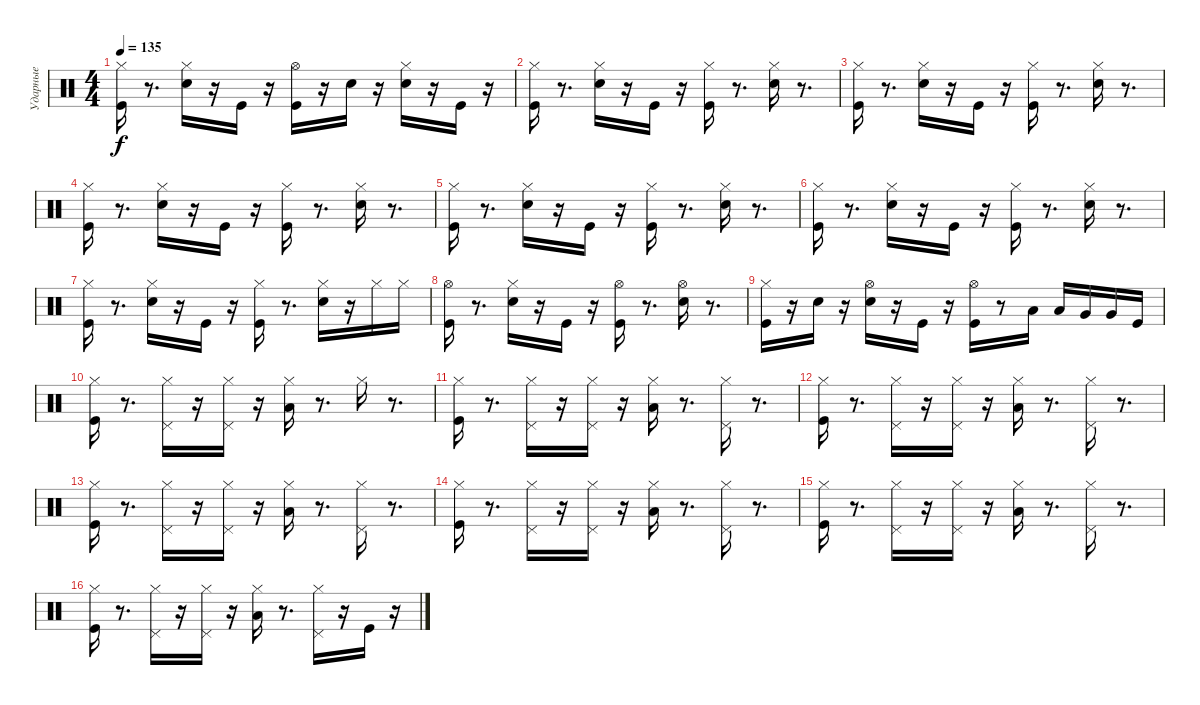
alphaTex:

\track ("Ударные" "Ударные") {instrument percussion}
\staff {score}
\articulation defaults
\ts (4 4)
\tempo 135
\clef neutral
\ks c
("Hi-Hat (closed)" "Kick (hit)").16{dy f} r.8{d} ("Hi-Hat (closed)" "Snare (hit) 2").16 r.16 "Kick (hit)".16 r.16 ("Kick (hit)" "Hi-Hat (open)").16 r.16 "Snare (hit) 2".16 r.16 ("Hi-Hat (closed)" "Snare (hit) 2").16 r.16 "Kick (hit)".16 r.16 |
("Hi-Hat (closed)" "Kick (hit)").16 r.8{d} ("Hi-Hat (closed)" "Snare (hit) 2").16 r.16 "Kick (hit)".16 r.16 ("Hi-Hat (closed)" "Kick (hit)").16 r.8{d} ("Hi-Hat (closed)" "Snare (hit) 2").16 r.8{d} |
("Hi-Hat (closed)" "Kick (hit)").16 r.8{d} ("Hi-Hat (closed)" "Snare (hit) 2").16 r.16 "Kick (hit)".16 r.16 ("Hi-Hat (closed)" "Kick (hit)").16 r.8{d} ("Hi-Hat (closed)" "Snare (hit) 2").16 r.8{d} |
("Hi-Hat (closed)" "Kick (hit)").16 r.8{d} ("Hi-Hat (closed)" "Snare (hit) 2").16 r.16 "Kick (hit)".16 r.16 ("Hi-Hat (closed)" "Kick (hit)").16 r.8{d} ("Hi-Hat (closed)" "Snare (hit) 2").16 r.8{d} |
("Hi-Hat (closed)" "Kick (hit)").16 r.8{d} ("Hi-Hat (closed)" "Snare (hit) 2").16 r.16 "Kick (hit)".16 r.16 ("Hi-Hat (closed)" "Kick (hit)").16 r.8{d} ("Hi-Hat (closed)" "Snare (hit) 2").16 r.8{d} |
("Hi-Hat (closed)" "Kick (hit)").16 r.8{d} ("Hi-Hat (closed)" "Snare (hit) 2").16 r.16 "Kick (hit)".16 r.16 ("Hi-Hat (closed)" "Kick (hit)").16 r.8{d} ("Hi-Hat (closed)" "Snare (hit) 2").16 r.8{d} |
("Hi-Hat (closed)" "Kick (hit)").16 r.8{d} ("Hi-Hat (closed)" "Snare (hit) 2").16 r.16 "Kick (hit)".16 r.16 ("Hi-Hat (closed)" "Kick (hit)").16 r.8{d} ("Hi-Hat (closed)" "Snare (hit) 2").16 r.16 "Hi-Hat (closed)".16 "Hi-Hat (closed)".16 |
("Kick (hit)" "Hi-Hat (open)").16 r.8{d} ("Hi-Hat (closed)" "Snare (hit) 2").16 r.16 "Kick (hit)".16 r.16 ("Kick (hit)" "Hi-Hat (open)").16 r.8{d} ("Hi-Hat (open)" "Snare (hit) 2").16 r.8{d} |
("Kick (hit)" "Hi-Hat (closed)").16 r.16 "Snare (hit) 2".16 r.16 ("Hi-Hat (open)" "Snare (hit) 2").16 r.16 "Kick (hit)".16 r.16 ("Kick (hit)" "Hi-Hat (open)").16 r.8 "Low Tom (hit)".16 "Low Tom (hit)".16 "Very Low Tom (hit)".16 "Very Low Tom (hit)".16 "Kick (hit)".16 |
("Kick (hit)" "Hi-Hat (closed)").16 r.8{d} ("Pedal Hi-Hat (hit)" "Hi-Hat (closed)").16 r.16 ("Pedal Hi-Hat (hit)" "Hi-Hat (closed)").16 r.16 ("Hi-Hat (closed)" "Low Floor Tom (hit)").16 r.8{d} "Hi-Hat (closed)".16 r.8{d} |
("Kick (hit)" "Hi-Hat (closed)").16 r.8{d} ("Pedal Hi-Hat (hit)" "Hi-Hat (closed)").16 r.16 ("Pedal Hi-Hat (hit)" "Hi-Hat (closed)").16 r.16 ("Hi-Hat (closed)" "Low Floor Tom (hit)").16 r.8{d} ("Hi-Hat (closed)" "Pedal Hi-Hat (hit)").16 r.8{d} |
("Kick (hit)" "Hi-Hat (closed)").16 r.8{d} ("Pedal Hi-Hat (hit)" "Hi-Hat (closed)").16 r.16 ("Pedal Hi-Hat (hit)" "Hi-Hat (closed)").16 r.16 ("Hi-Hat (closed)" "Low Floor Tom (hit)").16 r.8{d} ("Hi-Hat (closed)" "Pedal Hi-Hat (hit)").16 r.8{d} |
("Kick (hit)" "Hi-Hat (closed)").16 r.8{d} ("Pedal Hi-Hat (hit)" "Hi-Hat (closed)").16 r.16 ("Pedal Hi-Hat (hit)" "Hi-Hat (closed)").16 r.16 ("Hi-Hat (closed)" "Low Floor Tom (hit)").16 r.8{d} ("Hi-Hat (closed)" "Pedal Hi-Hat (hit)").16 r.8{d} |
("Kick (hit)" "Hi-Hat (closed)").16 r.8{d} ("Pedal Hi-Hat (hit)" "Hi-Hat (closed)").16 r.16 ("Pedal Hi-Hat (hit)" "Hi-Hat (closed)").16 r.16 ("Hi-Hat (closed)" "Low Floor Tom (hit)").16 r.8{d} ("Hi-Hat (closed)" "Pedal Hi-Hat (hit)").16 r.8{d} |
("Kick (hit)" "Hi-Hat (closed)").16 r.8{d} ("Pedal Hi-Hat (hit)" "Hi-Hat (closed)").16 r.16 ("Pedal Hi-Hat (hit)" "Hi-Hat (closed)").16 r.16 ("Hi-Hat (closed)" "Low Floor Tom (hit)").16 r.8{d} ("Hi-Hat (closed)" "Pedal Hi-Hat (hit)").16 r.8{d} |
("Kick (hit)" "Hi-Hat (closed)").16 r.8{d} ("Pedal Hi-Hat (hit)" "Hi-Hat (closed)").16 r.16 ("Pedal Hi-Hat (hit)" "Hi-Hat (closed)").16 r.16 ("Hi-Hat (closed)" "Low Floor Tom (hit)").16 r.8{d} ("Hi-Hat (closed)" "Pedal Hi-Hat (hit)").16 r.16 "Kick (hit)".16 r.16
